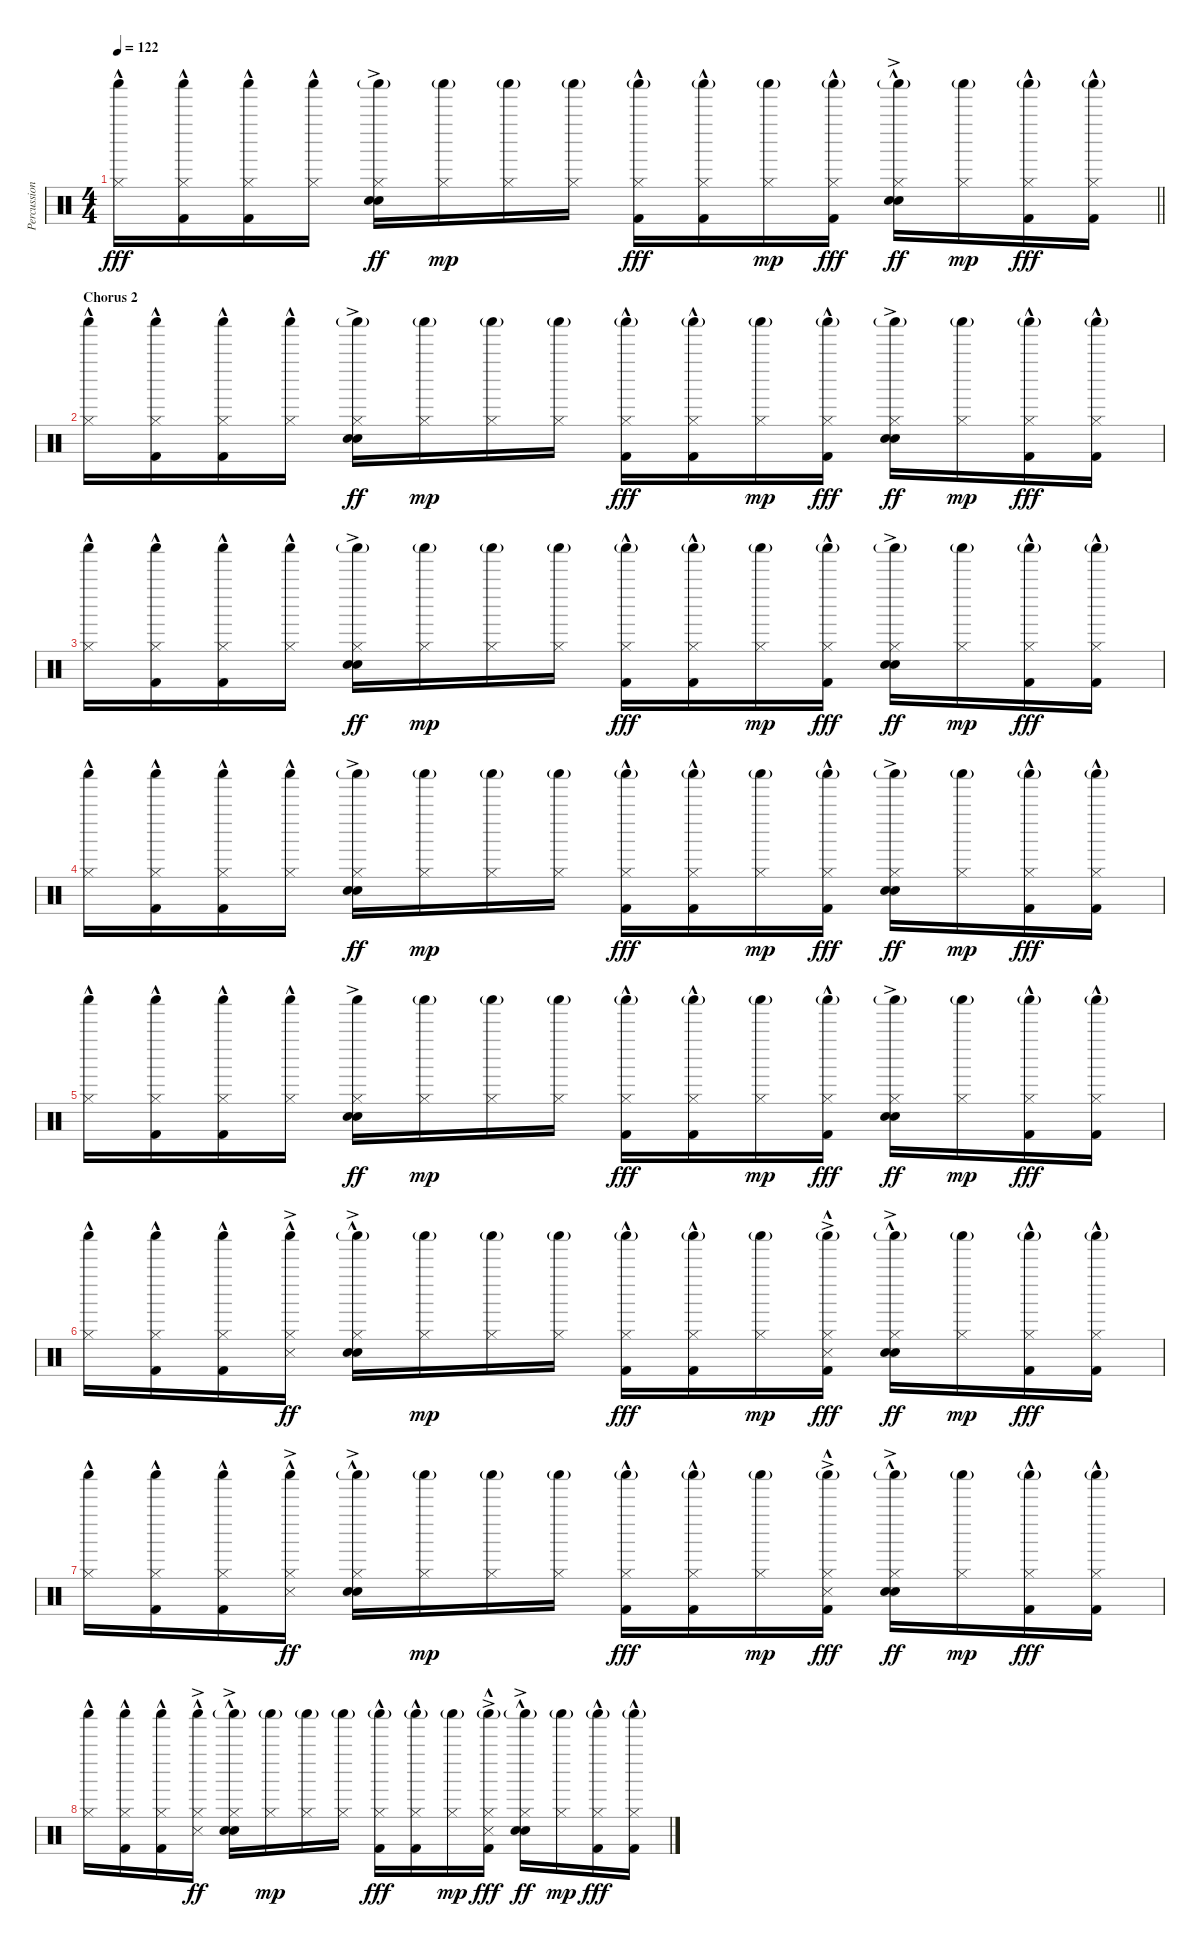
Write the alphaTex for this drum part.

\track ("Percussion" "Percussion") {instrument percussion}
\staff {score}
\articulation defaults
\ts (4 4)
\tempo 122
\clef neutral
\barLineRight lightlight
\ks c
("Shaker (hit)" "Hi-Hat (closed)"{hac}).16{dy fff} ("Shaker (hit)" "Hi-Hat (closed)"{hac} "Kick (hit) 2"{hac}).16 ("Shaker (hit)" "Hi-Hat (closed)"{hac} "Kick (hit) 2"{hac}).16 ("Shaker (hit)" "Hi-Hat (closed)"{hac}).16 ("Shaker (hit)"{g} "Hi-Hat (closed)" "Hand Clap (hit)"{ac} "Snare (hit) 2"{ac}).16{dy ff} ("Shaker (hit)"{g} "Hi-Hat (closed)").16{dy mp} ("Shaker (hit)"{g} "Hi-Hat (closed)").16 ("Shaker (hit)"{g} "Hi-Hat (closed)").16 ("Shaker (hit)"{g} "Hi-Hat (closed)" "Kick (hit) 2"{hac}).16{dy fff} ("Shaker (hit)"{g} "Hi-Hat (closed)" "Kick (hit) 2"{hac}).16 ("Shaker (hit)"{g} "Hi-Hat (closed)").16{dy mp} ("Shaker (hit)"{g} "Hi-Hat (closed)" "Kick (hit) 2"{hac}).16{dy fff} ("Shaker (hit)"{g} "Hi-Hat (closed)" "Hand Clap (hit)"{hac} "Snare (hit) 2"{ac}).16{dy ff} ("Shaker (hit)"{g} "Hi-Hat (closed)").16{dy mp} ("Shaker (hit)"{g} "Hi-Hat (closed)" "Kick (hit) 2"{hac}).16{dy fff} ("Shaker (hit)"{g} "Hi-Hat (closed)" "Kick (hit) 2"{hac}).16 |
\section ("" "Chorus 2")
("Shaker (hit)" "Hi-Hat (closed)"{hac}).16 ("Shaker (hit)" "Hi-Hat (closed)"{hac} "Kick (hit) 2"{hac}).16 ("Shaker (hit)" "Hi-Hat (closed)"{hac} "Kick (hit) 2"{hac}).16 ("Shaker (hit)" "Hi-Hat (closed)"{hac}).16 ("Shaker (hit)"{g} "Hi-Hat (closed)" "Hand Clap (hit)" "Snare (hit) 2"{ac}).16{dy ff} ("Shaker (hit)"{g} "Hi-Hat (closed)").16{dy mp} ("Shaker (hit)"{g} "Hi-Hat (closed)").16 ("Shaker (hit)"{g} "Hi-Hat (closed)").16 ("Shaker (hit)"{g} "Hi-Hat (closed)" "Kick (hit) 2"{hac}).16{dy fff} ("Shaker (hit)"{g} "Hi-Hat (closed)" "Kick (hit) 2"{hac}).16 ("Shaker (hit)"{g} "Hi-Hat (closed)").16{dy mp} ("Shaker (hit)"{g} "Hi-Hat (closed)" "Kick (hit) 2"{hac}).16{dy fff} ("Shaker (hit)"{g} "Hi-Hat (closed)" "Hand Clap (hit)"{ac} "Snare (hit) 2"{ac}).16{dy ff} ("Shaker (hit)"{g} "Hi-Hat (closed)").16{dy mp} ("Shaker (hit)"{g} "Hi-Hat (closed)" "Kick (hit) 2"{hac}).16{dy fff} ("Shaker (hit)"{g} "Hi-Hat (closed)" "Kick (hit) 2"{hac}).16 |
("Shaker (hit)" "Hi-Hat (closed)"{hac}).16 ("Shaker (hit)" "Hi-Hat (closed)"{hac} "Kick (hit) 2"{hac}).16 ("Shaker (hit)" "Hi-Hat (closed)"{hac} "Kick (hit) 2"{hac}).16 ("Shaker (hit)" "Hi-Hat (closed)"{hac}).16 ("Shaker (hit)"{g} "Hi-Hat (closed)" "Hand Clap (hit)" "Snare (hit) 2"{ac}).16{dy ff} ("Shaker (hit)"{g} "Hi-Hat (closed)").16{dy mp} ("Shaker (hit)"{g} "Hi-Hat (closed)").16 ("Shaker (hit)"{g} "Hi-Hat (closed)").16 ("Shaker (hit)"{g} "Hi-Hat (closed)" "Kick (hit) 2"{hac}).16{dy fff} ("Shaker (hit)"{g} "Hi-Hat (closed)" "Kick (hit) 2"{hac}).16 ("Shaker (hit)"{g} "Hi-Hat (closed)").16{dy mp} ("Shaker (hit)"{g} "Hi-Hat (closed)" "Kick (hit) 2"{hac}).16{dy fff} ("Shaker (hit)"{g} "Hi-Hat (closed)" "Hand Clap (hit)"{ac} "Snare (hit) 2"{ac}).16{dy ff} ("Shaker (hit)"{g} "Hi-Hat (closed)").16{dy mp} ("Shaker (hit)"{g} "Hi-Hat (closed)" "Kick (hit) 2"{hac}).16{dy fff} ("Shaker (hit)"{g} "Hi-Hat (closed)" "Kick (hit) 2"{hac}).16 |
("Shaker (hit)" "Hi-Hat (closed)"{hac}).16 ("Shaker (hit)" "Hi-Hat (closed)"{hac} "Kick (hit) 2"{hac}).16 ("Shaker (hit)" "Hi-Hat (closed)"{hac} "Kick (hit) 2"{hac}).16 ("Shaker (hit)" "Hi-Hat (closed)"{hac}).16 ("Shaker (hit)"{g} "Hi-Hat (closed)" "Hand Clap (hit)" "Snare (hit) 2"{ac}).16{dy ff} ("Shaker (hit)"{g} "Hi-Hat (closed)").16{dy mp} ("Shaker (hit)"{g} "Hi-Hat (closed)").16 ("Shaker (hit)"{g} "Hi-Hat (closed)").16 ("Shaker (hit)"{g} "Hi-Hat (closed)" "Kick (hit) 2"{hac}).16{dy fff} ("Shaker (hit)"{g} "Hi-Hat (closed)" "Kick (hit) 2"{hac}).16 ("Shaker (hit)"{g} "Hi-Hat (closed)").16{dy mp} ("Shaker (hit)"{g} "Hi-Hat (closed)" "Kick (hit) 2"{hac}).16{dy fff} ("Shaker (hit)"{g} "Hi-Hat (closed)" "Hand Clap (hit)"{ac} "Snare (hit) 2"{ac}).16{dy ff} ("Shaker (hit)"{g} "Hi-Hat (closed)").16{dy mp} ("Shaker (hit)"{g} "Hi-Hat (closed)" "Kick (hit) 2"{hac}).16{dy fff} ("Shaker (hit)"{g} "Hi-Hat (closed)" "Kick (hit) 2"{hac}).16 |
("Shaker (hit)" "Hi-Hat (closed)"{hac}).16 ("Shaker (hit)" "Hi-Hat (closed)"{hac} "Kick (hit) 2"{hac}).16 ("Shaker (hit)" "Hi-Hat (closed)"{hac} "Kick (hit) 2"{hac}).16 ("Shaker (hit)" "Hi-Hat (closed)"{hac}).16 ("Shaker (hit)" "Hi-Hat (closed)" "Hand Clap (hit)" "Snare (hit) 2"{ac}).16{dy ff} ("Shaker (hit)"{g} "Hi-Hat (closed)").16{dy mp} ("Shaker (hit)"{g} "Hi-Hat (closed)").16 ("Shaker (hit)"{g} "Hi-Hat (closed)").16 ("Shaker (hit)"{g} "Hi-Hat (closed)" "Kick (hit) 2"{hac}).16{dy fff} ("Shaker (hit)"{g} "Hi-Hat (closed)" "Kick (hit) 2"{hac}).16 ("Shaker (hit)"{g} "Hi-Hat (closed)").16{dy mp} ("Shaker (hit)"{g} "Hi-Hat (closed)" "Kick (hit) 2"{hac}).16{dy fff} ("Shaker (hit)"{g} "Hi-Hat (closed)" "Hand Clap (hit)"{ac} "Snare (hit) 2"{ac}).16{dy ff} ("Shaker (hit)"{g} "Hi-Hat (closed)").16{dy mp} ("Shaker (hit)"{g} "Hi-Hat (closed)" "Kick (hit) 2"{hac}).16{dy fff} ("Shaker (hit)"{g} "Hi-Hat (closed)" "Kick (hit) 2"{hac}).16 |
("Shaker (hit)" "Hi-Hat (closed)"{hac}).16 ("Shaker (hit)" "Hi-Hat (closed)"{hac} "Kick (hit) 2"{hac}).16 ("Shaker (hit)" "Hi-Hat (closed)"{hac} "Kick (hit) 2"{hac}).16 ("Shaker (hit)" "Hi-Hat (closed)"{hac} "Snare (side stick) 3"{ac}).16{dy ff} ("Shaker (hit)"{g} "Hi-Hat (closed)" "Hand Clap (hit)"{hac} "Snare (hit) 2"{ac}).16 ("Shaker (hit)"{g} "Hi-Hat (closed)").16{dy mp} ("Shaker (hit)"{g} "Hi-Hat (closed)").16 ("Shaker (hit)"{g} "Hi-Hat (closed)").16 ("Shaker (hit)"{g} "Hi-Hat (closed)" "Kick (hit) 2"{hac}).16{dy fff} ("Shaker (hit)"{g} "Hi-Hat (closed)" "Kick (hit) 2"{hac}).16 ("Shaker (hit)"{g} "Hi-Hat (closed)").16{dy mp} ("Shaker (hit)"{g} "Hi-Hat (closed)" "Snare (side stick) 3"{ac} "Kick (hit) 2"{hac}).16{dy fff} ("Shaker (hit)"{g} "Hi-Hat (closed)" "Hand Clap (hit)"{hac} "Snare (hit) 2"{ac}).16{dy ff} ("Shaker (hit)"{g} "Hi-Hat (closed)").16{dy mp} ("Shaker (hit)"{g} "Hi-Hat (closed)" "Kick (hit) 2"{hac}).16{dy fff} ("Shaker (hit)"{g} "Hi-Hat (closed)" "Kick (hit) 2"{hac}).16 |
("Shaker (hit)" "Hi-Hat (closed)"{hac}).16 ("Shaker (hit)" "Hi-Hat (closed)"{hac} "Kick (hit) 2"{hac}).16 ("Shaker (hit)" "Hi-Hat (closed)"{hac} "Kick (hit) 2"{hac}).16 ("Shaker (hit)" "Hi-Hat (closed)"{hac} "Snare (side stick) 3"{ac}).16{dy ff} ("Shaker (hit)"{g} "Hi-Hat (closed)" "Hand Clap (hit)"{hac} "Snare (hit) 2"{ac}).16 ("Shaker (hit)"{g} "Hi-Hat (closed)").16{dy mp} ("Shaker (hit)"{g} "Hi-Hat (closed)").16 ("Shaker (hit)"{g} "Hi-Hat (closed)").16 ("Shaker (hit)"{g} "Hi-Hat (closed)" "Kick (hit) 2"{hac}).16{dy fff} ("Shaker (hit)"{g} "Hi-Hat (closed)" "Kick (hit) 2"{hac}).16 ("Shaker (hit)"{g} "Hi-Hat (closed)").16{dy mp} ("Shaker (hit)"{g} "Hi-Hat (closed)" "Snare (side stick) 3"{ac} "Kick (hit) 2"{hac}).16{dy fff} ("Shaker (hit)"{g} "Hi-Hat (closed)" "Hand Clap (hit)"{hac} "Snare (hit) 2"{ac}).16{dy ff} ("Shaker (hit)"{g} "Hi-Hat (closed)").16{dy mp} ("Shaker (hit)"{g} "Hi-Hat (closed)" "Kick (hit) 2"{hac}).16{dy fff} ("Shaker (hit)"{g} "Hi-Hat (closed)" "Kick (hit) 2"{hac}).16 |
("Shaker (hit)" "Hi-Hat (closed)"{hac}).16 ("Shaker (hit)" "Hi-Hat (closed)"{hac} "Kick (hit) 2"{hac}).16 ("Shaker (hit)" "Hi-Hat (closed)"{hac} "Kick (hit) 2"{hac}).16 ("Shaker (hit)" "Hi-Hat (closed)"{hac} "Snare (side stick) 3"{ac}).16{dy ff} ("Shaker (hit)"{g} "Hi-Hat (closed)" "Hand Clap (hit)"{hac} "Snare (hit) 2"{ac}).16 ("Shaker (hit)"{g} "Hi-Hat (closed)").16{dy mp} ("Shaker (hit)"{g} "Hi-Hat (closed)").16 ("Shaker (hit)"{g} "Hi-Hat (closed)").16 ("Shaker (hit)"{g} "Hi-Hat (closed)" "Kick (hit) 2"{hac}).16{dy fff} ("Shaker (hit)"{g} "Hi-Hat (closed)" "Kick (hit) 2"{hac}).16 ("Shaker (hit)"{g} "Hi-Hat (closed)").16{dy mp} ("Shaker (hit)"{g} "Hi-Hat (closed)" "Snare (side stick) 3"{ac} "Kick (hit) 2"{hac}).16{dy fff} ("Shaker (hit)"{g} "Hi-Hat (closed)" "Hand Clap (hit)"{hac} "Snare (hit) 2"{ac}).16{dy ff} ("Shaker (hit)"{g} "Hi-Hat (closed)").16{dy mp} ("Shaker (hit)"{g} "Hi-Hat (closed)" "Kick (hit) 2"{hac}).16{dy fff} ("Shaker (hit)"{g} "Hi-Hat (closed)" "Kick (hit) 2"{hac}).16
